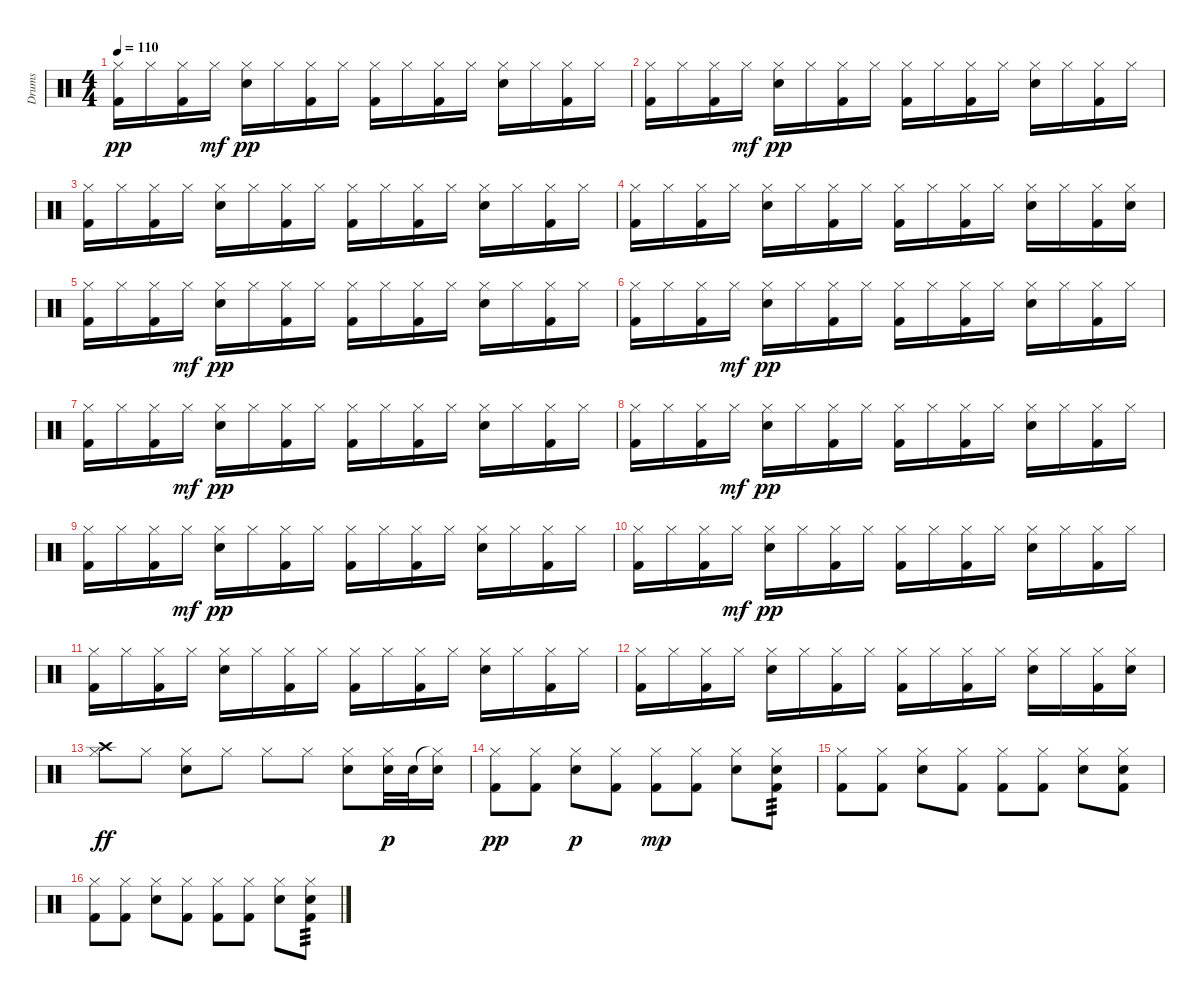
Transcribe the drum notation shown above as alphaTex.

\track ("Drums" "Drums") {instrument percussion}
\staff {score}
\articulation defaults
\ts (4 4)
\tempo 110
\clef neutral
\ks c
("Kick (hit) 2" "Hi-Hat (closed)").16{dy pp} "Hi-Hat (closed)".16 ("Kick (hit) 2" "Hi-Hat (closed)").16 "Hi-Hat (closed)".16{dy mf} ("Electric Snare (hit)" "Hi-Hat (closed)").16{dy pp} "Hi-Hat (closed)".16 ("Kick (hit) 2" "Hi-Hat (closed)").16 "Hi-Hat (closed)".16 ("Kick (hit) 2" "Hi-Hat (closed)").16 "Hi-Hat (closed)".16 ("Kick (hit) 2" "Hi-Hat (closed)").16 "Hi-Hat (closed)".16 ("Electric Snare (hit)" "Hi-Hat (closed)").16 "Hi-Hat (closed)".16 ("Kick (hit) 2" "Hi-Hat (closed)").16 "Hi-Hat (closed)".16 |
("Kick (hit) 2" "Hi-Hat (closed)").16 "Hi-Hat (closed)".16 ("Kick (hit) 2" "Hi-Hat (closed)").16 "Hi-Hat (closed)".16{dy mf} ("Electric Snare (hit)" "Hi-Hat (closed)").16{dy pp} "Hi-Hat (closed)".16 ("Kick (hit) 2" "Hi-Hat (closed)").16 "Hi-Hat (closed)".16 ("Kick (hit) 2" "Hi-Hat (closed)").16 "Hi-Hat (closed)".16 ("Kick (hit) 2" "Hi-Hat (closed)").16 "Hi-Hat (closed)".16 ("Electric Snare (hit)" "Hi-Hat (closed)").16 "Hi-Hat (closed)".16 ("Kick (hit) 2" "Hi-Hat (closed)").16 "Hi-Hat (closed)".16 |
("Kick (hit) 2" "Hi-Hat (closed)").16 "Hi-Hat (closed)".16 ("Kick (hit) 2" "Hi-Hat (closed)").16 "Hi-Hat (closed)".16 ("Electric Snare (hit)" "Hi-Hat (closed)").16 "Hi-Hat (closed)".16 ("Kick (hit) 2" "Hi-Hat (closed)").16 "Hi-Hat (closed)".16 ("Kick (hit) 2" "Hi-Hat (closed)").16 "Hi-Hat (closed)".16 ("Kick (hit) 2" "Hi-Hat (closed)").16 "Hi-Hat (closed)".16 ("Electric Snare (hit)" "Hi-Hat (closed)").16 "Hi-Hat (closed)".16 ("Kick (hit) 2" "Hi-Hat (closed)").16 "Hi-Hat (closed)".16 |
("Kick (hit) 2" "Hi-Hat (closed)").16 "Hi-Hat (closed)".16 ("Kick (hit) 2" "Hi-Hat (closed)").16 "Hi-Hat (closed)".16 ("Electric Snare (hit)" "Hi-Hat (closed)").16 "Hi-Hat (closed)".16 ("Kick (hit) 2" "Hi-Hat (closed)").16 "Hi-Hat (closed)".16 ("Kick (hit) 2" "Hi-Hat (closed)").16 "Hi-Hat (closed)".16 ("Kick (hit) 2" "Hi-Hat (closed)").16 "Hi-Hat (closed)".16 ("Electric Snare (hit)" "Hi-Hat (closed)").16 "Hi-Hat (closed)".16 ("Kick (hit) 2" "Hi-Hat (closed)").16 ("Electric Snare (hit)" "Hi-Hat (closed)").16 |
("Kick (hit) 2" "Hi-Hat (closed)").16 "Hi-Hat (closed)".16 ("Kick (hit) 2" "Hi-Hat (closed)").16 "Hi-Hat (closed)".16{dy mf} ("Electric Snare (hit)" "Hi-Hat (closed)").16{dy pp} "Hi-Hat (closed)".16 ("Kick (hit) 2" "Hi-Hat (closed)").16 "Hi-Hat (closed)".16 ("Kick (hit) 2" "Hi-Hat (closed)").16 "Hi-Hat (closed)".16 ("Kick (hit) 2" "Hi-Hat (closed)").16 "Hi-Hat (closed)".16 ("Electric Snare (hit)" "Hi-Hat (closed)").16 "Hi-Hat (closed)".16 ("Kick (hit) 2" "Hi-Hat (closed)").16 "Hi-Hat (closed)".16 |
("Kick (hit) 2" "Hi-Hat (closed)").16 "Hi-Hat (closed)".16 ("Kick (hit) 2" "Hi-Hat (closed)").16 "Hi-Hat (closed)".16{dy mf} ("Electric Snare (hit)" "Hi-Hat (closed)").16{dy pp} "Hi-Hat (closed)".16 ("Kick (hit) 2" "Hi-Hat (closed)").16 "Hi-Hat (closed)".16 ("Kick (hit) 2" "Hi-Hat (closed)").16 "Hi-Hat (closed)".16 ("Kick (hit) 2" "Hi-Hat (closed)").16 "Hi-Hat (closed)".16 ("Electric Snare (hit)" "Hi-Hat (closed)").16 "Hi-Hat (closed)".16 ("Kick (hit) 2" "Hi-Hat (closed)").16 "Hi-Hat (closed)".16 |
("Kick (hit) 2" "Hi-Hat (closed)").16 "Hi-Hat (closed)".16 ("Kick (hit) 2" "Hi-Hat (closed)").16 "Hi-Hat (closed)".16{dy mf} ("Electric Snare (hit)" "Hi-Hat (closed)").16{dy pp} "Hi-Hat (closed)".16 ("Kick (hit) 2" "Hi-Hat (closed)").16 "Hi-Hat (closed)".16 ("Kick (hit) 2" "Hi-Hat (closed)").16 "Hi-Hat (closed)".16 ("Kick (hit) 2" "Hi-Hat (closed)").16 "Hi-Hat (closed)".16 ("Electric Snare (hit)" "Hi-Hat (closed)").16 "Hi-Hat (closed)".16 ("Kick (hit) 2" "Hi-Hat (closed)").16 "Hi-Hat (closed)".16 |
("Kick (hit) 2" "Hi-Hat (closed)").16 "Hi-Hat (closed)".16 ("Kick (hit) 2" "Hi-Hat (closed)").16 "Hi-Hat (closed)".16{dy mf} ("Electric Snare (hit)" "Hi-Hat (closed)").16{dy pp} "Hi-Hat (closed)".16 ("Kick (hit) 2" "Hi-Hat (closed)").16 "Hi-Hat (closed)".16 ("Kick (hit) 2" "Hi-Hat (closed)").16 "Hi-Hat (closed)".16 ("Kick (hit) 2" "Hi-Hat (closed)").16 "Hi-Hat (closed)".16 ("Electric Snare (hit)" "Hi-Hat (closed)").16 "Hi-Hat (closed)".16 ("Kick (hit) 2" "Hi-Hat (closed)").16 "Hi-Hat (closed)".16 |
("Kick (hit) 2" "Hi-Hat (closed)").16 "Hi-Hat (closed)".16 ("Kick (hit) 2" "Hi-Hat (closed)").16 "Hi-Hat (closed)".16{dy mf} ("Electric Snare (hit)" "Hi-Hat (closed)").16{dy pp} "Hi-Hat (closed)".16 ("Kick (hit) 2" "Hi-Hat (closed)").16 "Hi-Hat (closed)".16 ("Kick (hit) 2" "Hi-Hat (closed)").16 "Hi-Hat (closed)".16 ("Kick (hit) 2" "Hi-Hat (closed)").16 "Hi-Hat (closed)".16 ("Electric Snare (hit)" "Hi-Hat (closed)").16 "Hi-Hat (closed)".16 ("Kick (hit) 2" "Hi-Hat (closed)").16 "Hi-Hat (closed)".16 |
("Kick (hit) 2" "Hi-Hat (closed)").16 "Hi-Hat (closed)".16 ("Kick (hit) 2" "Hi-Hat (closed)").16 "Hi-Hat (closed)".16{dy mf} ("Electric Snare (hit)" "Hi-Hat (closed)").16{dy pp} "Hi-Hat (closed)".16 ("Kick (hit) 2" "Hi-Hat (closed)").16 "Hi-Hat (closed)".16 ("Kick (hit) 2" "Hi-Hat (closed)").16 "Hi-Hat (closed)".16 ("Kick (hit) 2" "Hi-Hat (closed)").16 "Hi-Hat (closed)".16 ("Electric Snare (hit)" "Hi-Hat (closed)").16 "Hi-Hat (closed)".16 ("Kick (hit) 2" "Hi-Hat (closed)").16 "Hi-Hat (closed)".16 |
("Kick (hit) 2" "Hi-Hat (closed)").16 "Hi-Hat (closed)".16 ("Kick (hit) 2" "Hi-Hat (closed)").16 "Hi-Hat (closed)".16 ("Electric Snare (hit)" "Hi-Hat (closed)").16 "Hi-Hat (closed)".16 ("Kick (hit) 2" "Hi-Hat (closed)").16 "Hi-Hat (closed)".16 ("Kick (hit) 2" "Hi-Hat (closed)").16 "Hi-Hat (closed)".16 ("Kick (hit) 2" "Hi-Hat (closed)").16 "Hi-Hat (closed)".16 ("Electric Snare (hit)" "Hi-Hat (closed)").16 "Hi-Hat (closed)".16 ("Kick (hit) 2" "Hi-Hat (closed)").16 "Hi-Hat (closed)".16 |
("Kick (hit) 2" "Hi-Hat (closed)").16 "Hi-Hat (closed)".16 ("Kick (hit) 2" "Hi-Hat (closed)").16 "Hi-Hat (closed)".16 ("Electric Snare (hit)" "Hi-Hat (closed)").16 "Hi-Hat (closed)".16 ("Kick (hit) 2" "Hi-Hat (closed)").16 "Hi-Hat (closed)".16 ("Kick (hit) 2" "Hi-Hat (closed)").16 "Hi-Hat (closed)".16 ("Kick (hit) 2" "Hi-Hat (closed)").16 "Hi-Hat (closed)".16 ("Electric Snare (hit)" "Hi-Hat (closed)").16 "Hi-Hat (closed)".16 ("Kick (hit) 2" "Hi-Hat (closed)").16 ("Electric Snare (hit)" "Hi-Hat (closed)").16 |
("Crash high (hit)" "Hi-Hat (closed)").8{dy ff} "Hi-Hat (closed)".8 ("Hi-Hat (closed)" "Snare (hit) 2").8 "Hi-Hat (closed)".8 "Hi-Hat (closed)".8 "Hi-Hat (closed)".8 ("Hi-Hat (closed)" "Snare (hit) 2").8 ("Hi-Hat (closed)" "Snare (hit) 2").32{dy p} "Snare (hit) 2".32 ("Hi-Hat (closed)"{t} "Snare (hit) 2").16 |
("Kick (hit) 2" "Hi-Hat (closed)").8{dy pp} ("Kick (hit) 2" "Hi-Hat (closed)").8 ("Electric Snare (hit)" "Hi-Hat (closed)").8{dy p} ("Kick (hit) 2" "Hi-Hat (closed)").8 ("Kick (hit) 2" "Hi-Hat (closed)").8{dy mp} ("Kick (hit) 2" "Hi-Hat (closed)").8 ("Electric Snare (hit)" "Hi-Hat (closed)").8 ("Kick (hit) 2" "Electric Snare (hit)" "Hi-Hat (closed)").8{tp 3} |
("Kick (hit) 2" "Hi-Hat (closed)").8 ("Kick (hit) 2" "Hi-Hat (closed)").8 ("Electric Snare (hit)" "Hi-Hat (closed)").8 ("Kick (hit) 2" "Hi-Hat (closed)").8 ("Kick (hit) 2" "Hi-Hat (closed)").8 ("Kick (hit) 2" "Hi-Hat (closed)").8 ("Electric Snare (hit)" "Hi-Hat (closed)").8 ("Kick (hit) 2" "Electric Snare (hit)" "Hi-Hat (closed)").8 |
("Kick (hit) 2" "Hi-Hat (closed)").8 ("Kick (hit) 2" "Hi-Hat (closed)").8 ("Electric Snare (hit)" "Hi-Hat (closed)").8 ("Kick (hit) 2" "Hi-Hat (closed)").8 ("Kick (hit) 2" "Hi-Hat (closed)").8 ("Kick (hit) 2" "Hi-Hat (closed)").8 ("Electric Snare (hit)" "Hi-Hat (closed)").8 ("Kick (hit) 2" "Electric Snare (hit)" "Hi-Hat (closed)").8{tp 3}
